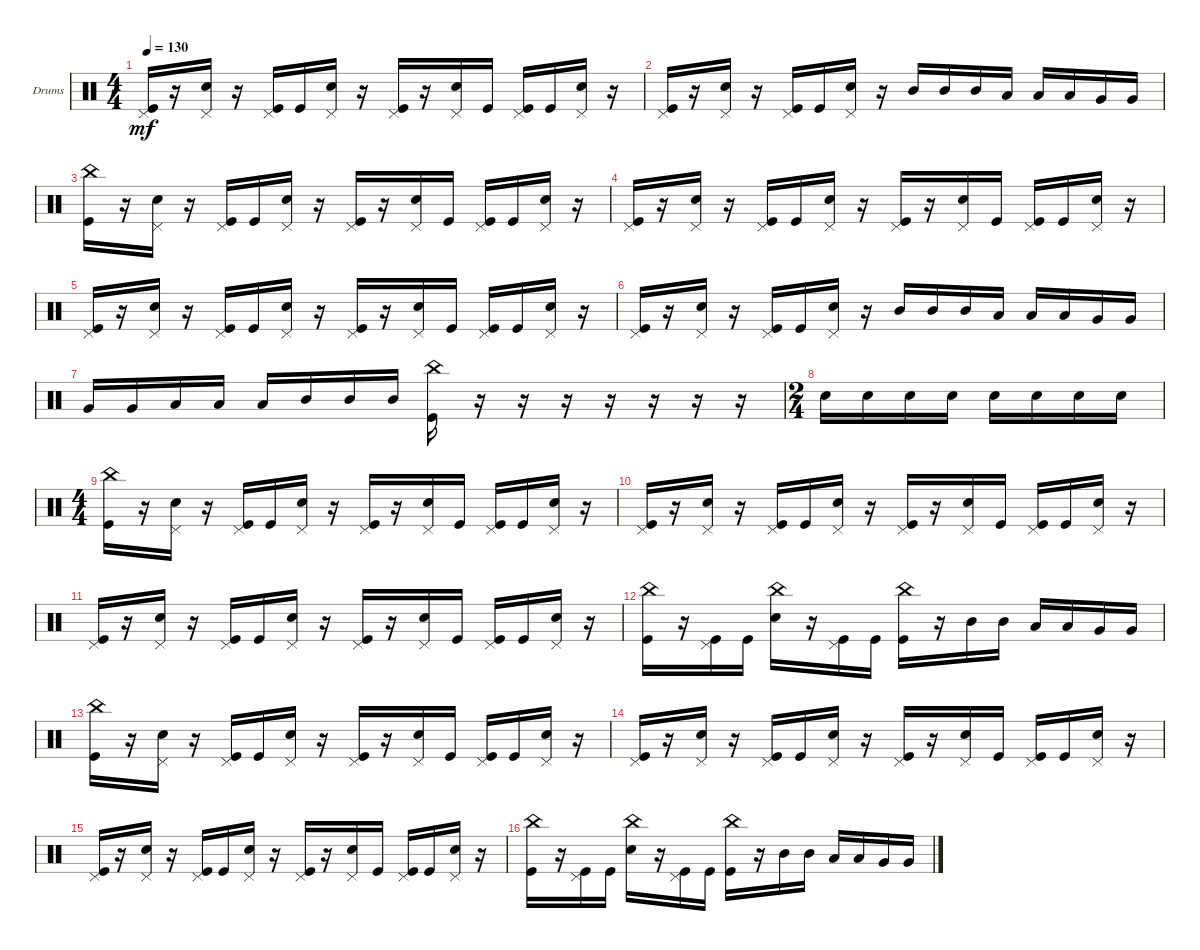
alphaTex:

\defaultSystemsLayout 4
\bracketExtendMode groupsimilarinstruments
\firstSystemTrackNameOrientation horizontal
\otherSystemsTrackNameOrientation horizontal
\track ("Drumkit" "Drums") {instrument percussion}
\staff {score}
\articulation defaults
\ts (4 4)
\tempo 130
\clef neutral
\ks c
("Kick (hit)" "Pedal Hi-Hat (hit)").16{dy mf} r.16 ("Snare (hit) 2" "Pedal Hi-Hat (hit)").16 r.16 ("Kick (hit)" "Pedal Hi-Hat (hit)").16 "Kick (hit)".16 ("Snare (hit) 2" "Pedal Hi-Hat (hit)").16 r.16 ("Kick (hit)" "Pedal Hi-Hat (hit)").16 r.16 ("Snare (hit) 2" "Pedal Hi-Hat (hit)").16 "Kick (hit)".16 ("Kick (hit)" "Pedal Hi-Hat (hit)").16 "Kick (hit)".16 ("Snare (hit) 2" "Pedal Hi-Hat (hit)").16 r.16 |
("Kick (hit)" "Pedal Hi-Hat (hit)").16 r.16 ("Snare (hit) 2" "Pedal Hi-Hat (hit)").16 r.16 ("Kick (hit)" "Pedal Hi-Hat (hit)").16 "Kick (hit)".16 ("Snare (hit) 2" "Pedal Hi-Hat (hit)").16 r.16 "Mid Tom (hit)".16 "Mid Tom (hit)".16 "Mid Tom (hit)".16 "Low Tom (hit)".16 "Low Tom (hit)".16 "Low Tom (hit)".16 "Very Low Tom (hit)".16 "Very Low Tom (hit)".16 |
("Kick (hit)" "China (hit)").16 r.16 ("Snare (hit) 2" "Pedal Hi-Hat (hit)").16 r.16 ("Kick (hit)" "Pedal Hi-Hat (hit)").16 "Kick (hit)".16 ("Snare (hit) 2" "Pedal Hi-Hat (hit)").16 r.16 ("Kick (hit)" "Pedal Hi-Hat (hit)").16 r.16 ("Snare (hit) 2" "Pedal Hi-Hat (hit)").16 "Kick (hit)".16 ("Kick (hit)" "Pedal Hi-Hat (hit)").16 "Kick (hit)".16 ("Snare (hit) 2" "Pedal Hi-Hat (hit)").16 r.16 |
("Kick (hit)" "Pedal Hi-Hat (hit)").16 r.16 ("Snare (hit) 2" "Pedal Hi-Hat (hit)").16 r.16 ("Kick (hit)" "Pedal Hi-Hat (hit)").16 "Kick (hit)".16 ("Snare (hit) 2" "Pedal Hi-Hat (hit)").16 r.16 ("Kick (hit)" "Pedal Hi-Hat (hit)").16 r.16 ("Snare (hit) 2" "Pedal Hi-Hat (hit)").16 "Kick (hit)".16 ("Kick (hit)" "Pedal Hi-Hat (hit)").16 "Kick (hit)".16 ("Snare (hit) 2" "Pedal Hi-Hat (hit)").16 r.16 |
("Kick (hit)" "Pedal Hi-Hat (hit)").16 r.16 ("Snare (hit) 2" "Pedal Hi-Hat (hit)").16 r.16 ("Kick (hit)" "Pedal Hi-Hat (hit)").16 "Kick (hit)".16 ("Snare (hit) 2" "Pedal Hi-Hat (hit)").16 r.16 ("Kick (hit)" "Pedal Hi-Hat (hit)").16 r.16 ("Snare (hit) 2" "Pedal Hi-Hat (hit)").16 "Kick (hit)".16 ("Kick (hit)" "Pedal Hi-Hat (hit)").16 "Kick (hit)".16 ("Snare (hit) 2" "Pedal Hi-Hat (hit)").16 r.16 |
("Kick (hit)" "Pedal Hi-Hat (hit)").16 r.16 ("Snare (hit) 2" "Pedal Hi-Hat (hit)").16 r.16 ("Kick (hit)" "Pedal Hi-Hat (hit)").16 "Kick (hit)".16 ("Snare (hit) 2" "Pedal Hi-Hat (hit)").16 r.16 "Mid Tom (hit)".16 "Mid Tom (hit)".16 "Mid Tom (hit)".16 "Low Tom (hit)".16 "Low Tom (hit)".16 "Low Tom (hit)".16 "Very Low Tom (hit)".16 "Very Low Tom (hit)".16 |
"Very Low Tom (hit)".16 "Very Low Tom (hit)".16 "Low Tom (hit)".16 "Low Tom (hit)".16 "Low Tom (hit)".16 "Mid Tom (hit)".16 "Mid Tom (hit)".16 "Mid Tom (hit)".16 ("Kick (hit)" "China (hit)").16 r.16 r.16 r.16 r.16 r.16 r.16 r.16 |
\ts (2 4)
"Snare (hit) 2".16 "Snare (hit) 2".16 "Snare (hit) 2".16 "Snare (hit) 2".16 "Snare (hit) 2".16 "Snare (hit) 2".16 "Snare (hit) 2".16 "Snare (hit) 2".16 |
\ts (4 4)
("Kick (hit)" "China (hit)").16 r.16 ("Snare (hit) 2" "Pedal Hi-Hat (hit)").16 r.16 ("Kick (hit)" "Pedal Hi-Hat (hit)").16 "Kick (hit)".16 ("Snare (hit) 2" "Pedal Hi-Hat (hit)").16 r.16 ("Kick (hit)" "Pedal Hi-Hat (hit)").16 r.16 ("Snare (hit) 2" "Pedal Hi-Hat (hit)").16 "Kick (hit)".16 ("Kick (hit)" "Pedal Hi-Hat (hit)").16 "Kick (hit)".16 ("Snare (hit) 2" "Pedal Hi-Hat (hit)").16 r.16 |
("Kick (hit)" "Pedal Hi-Hat (hit)").16 r.16 ("Snare (hit) 2" "Pedal Hi-Hat (hit)").16 r.16 ("Kick (hit)" "Pedal Hi-Hat (hit)").16 "Kick (hit)".16 ("Snare (hit) 2" "Pedal Hi-Hat (hit)").16 r.16 ("Kick (hit)" "Pedal Hi-Hat (hit)").16 r.16 ("Snare (hit) 2" "Pedal Hi-Hat (hit)").16 "Kick (hit)".16 ("Kick (hit)" "Pedal Hi-Hat (hit)").16 "Kick (hit)".16 ("Snare (hit) 2" "Pedal Hi-Hat (hit)").16 r.16 |
("Kick (hit)" "Pedal Hi-Hat (hit)").16 r.16 ("Snare (hit) 2" "Pedal Hi-Hat (hit)").16 r.16 ("Kick (hit)" "Pedal Hi-Hat (hit)").16 "Kick (hit)".16 ("Snare (hit) 2" "Pedal Hi-Hat (hit)").16 r.16 ("Kick (hit)" "Pedal Hi-Hat (hit)").16 r.16 ("Snare (hit) 2" "Pedal Hi-Hat (hit)").16 "Kick (hit)".16 ("Kick (hit)" "Pedal Hi-Hat (hit)").16 "Kick (hit)".16 ("Snare (hit) 2" "Pedal Hi-Hat (hit)").16 r.16 |
("Kick (hit)" "China (hit)").16 r.16 ("Kick (hit)" "Pedal Hi-Hat (hit)").16 "Kick (hit)".16 ("Snare (hit) 2" "China (hit)").16 r.16 ("Kick (hit)" "Pedal Hi-Hat (hit)").16 "Kick (hit)".16 ("Kick (hit)" "China (hit)").16 r.16 "Mid Tom (hit)".16 "Mid Tom (hit)".16 "Low Tom (hit)".16 "Low Tom (hit)".16 "Very Low Tom (hit)".16 "Very Low Tom (hit)".16 |
("Kick (hit)" "China (hit)").16 r.16 ("Snare (hit) 2" "Pedal Hi-Hat (hit)").16 r.16 ("Kick (hit)" "Pedal Hi-Hat (hit)").16 "Kick (hit)".16 ("Snare (hit) 2" "Pedal Hi-Hat (hit)").16 r.16 ("Kick (hit)" "Pedal Hi-Hat (hit)").16 r.16 ("Snare (hit) 2" "Pedal Hi-Hat (hit)").16 "Kick (hit)".16 ("Kick (hit)" "Pedal Hi-Hat (hit)").16 "Kick (hit)".16 ("Snare (hit) 2" "Pedal Hi-Hat (hit)").16 r.16 |
("Kick (hit)" "Pedal Hi-Hat (hit)").16 r.16 ("Snare (hit) 2" "Pedal Hi-Hat (hit)").16 r.16 ("Kick (hit)" "Pedal Hi-Hat (hit)").16 "Kick (hit)".16 ("Snare (hit) 2" "Pedal Hi-Hat (hit)").16 r.16 ("Kick (hit)" "Pedal Hi-Hat (hit)").16 r.16 ("Snare (hit) 2" "Pedal Hi-Hat (hit)").16 "Kick (hit)".16 ("Kick (hit)" "Pedal Hi-Hat (hit)").16 "Kick (hit)".16 ("Snare (hit) 2" "Pedal Hi-Hat (hit)").16 r.16 |
("Kick (hit)" "Pedal Hi-Hat (hit)").16 r.16 ("Snare (hit) 2" "Pedal Hi-Hat (hit)").16 r.16 ("Kick (hit)" "Pedal Hi-Hat (hit)").16 "Kick (hit)".16 ("Snare (hit) 2" "Pedal Hi-Hat (hit)").16 r.16 ("Kick (hit)" "Pedal Hi-Hat (hit)").16 r.16 ("Snare (hit) 2" "Pedal Hi-Hat (hit)").16 "Kick (hit)".16 ("Kick (hit)" "Pedal Hi-Hat (hit)").16 "Kick (hit)".16 ("Snare (hit) 2" "Pedal Hi-Hat (hit)").16 r.16 |
("Kick (hit)" "China (hit)").16 r.16 ("Kick (hit)" "Pedal Hi-Hat (hit)").16 "Kick (hit)".16 ("Snare (hit) 2" "China (hit)").16 r.16 ("Kick (hit)" "Pedal Hi-Hat (hit)").16 "Kick (hit)".16 ("Kick (hit)" "China (hit)").16 r.16 "Mid Tom (hit)".16 "Mid Tom (hit)".16 "Low Tom (hit)".16 "Low Tom (hit)".16 "Very Low Tom (hit)".16 "Very Low Tom (hit)".16
